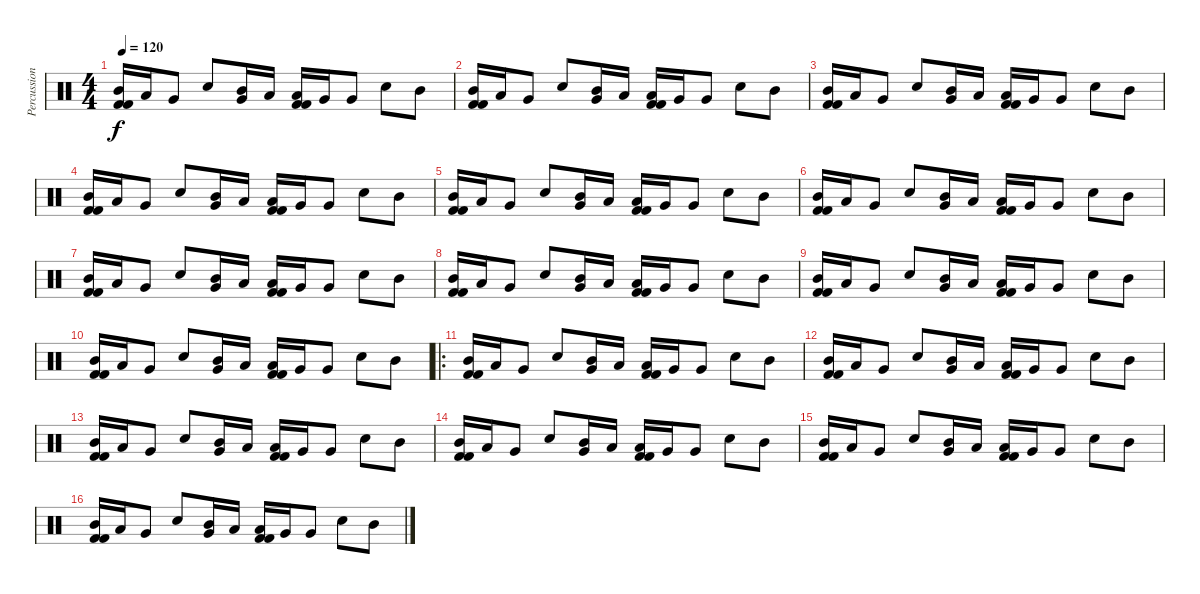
\track ("Percussions" "Percussion") {instrument percussion}
\staff {score}
\articulation defaults
\ts (4 4)
\tempo 120
\clef neutral
\ks c
("Kick (hit) 2" "Mid Tom (hit)" "Kick (hit) 2").16{dy f} "Low Tom (hit)".16 "Very Low Tom (hit)".8 "Snare (hit) 2".8 ("Mid Tom (hit)" "Very Low Tom (hit)").16 "Low Tom (hit)".16 ("Kick (hit) 2" "Low Tom (hit)" "Kick (hit) 2").16 "Very Low Tom (hit)".16 "Very Low Tom (hit)".8 "Snare (hit) 2".8 "Mid Tom (hit)".8 |
("Kick (hit) 2" "Mid Tom (hit)" "Kick (hit) 2").16 "Low Tom (hit)".16 "Very Low Tom (hit)".8 "Snare (hit) 2".8 ("Mid Tom (hit)" "Very Low Tom (hit)").16 "Low Tom (hit)".16 ("Kick (hit) 2" "Low Tom (hit)" "Kick (hit) 2").16 "Very Low Tom (hit)".16 "Very Low Tom (hit)".8 "Snare (hit) 2".8 "Mid Tom (hit)".8 |
("Kick (hit) 2" "Mid Tom (hit)" "Kick (hit) 2").16 "Low Tom (hit)".16 "Very Low Tom (hit)".8 "Snare (hit) 2".8 ("Mid Tom (hit)" "Very Low Tom (hit)").16 "Low Tom (hit)".16 ("Kick (hit) 2" "Low Tom (hit)" "Kick (hit) 2").16 "Very Low Tom (hit)".16 "Very Low Tom (hit)".8 "Snare (hit) 2".8 "Mid Tom (hit)".8 |
("Kick (hit) 2" "Mid Tom (hit)" "Kick (hit) 2").16 "Low Tom (hit)".16 "Very Low Tom (hit)".8 "Snare (hit) 2".8 ("Mid Tom (hit)" "Very Low Tom (hit)").16 "Low Tom (hit)".16 ("Kick (hit) 2" "Low Tom (hit)" "Kick (hit) 2").16 "Very Low Tom (hit)".16 "Very Low Tom (hit)".8 "Snare (hit) 2".8 "Mid Tom (hit)".8 |
("Kick (hit) 2" "Mid Tom (hit)" "Kick (hit) 2").16 "Low Tom (hit)".16 "Very Low Tom (hit)".8 "Snare (hit) 2".8 ("Mid Tom (hit)" "Very Low Tom (hit)").16 "Low Tom (hit)".16 ("Kick (hit) 2" "Low Tom (hit)" "Kick (hit) 2").16 "Very Low Tom (hit)".16 "Very Low Tom (hit)".8 "Snare (hit) 2".8 "Mid Tom (hit)".8 |
("Kick (hit) 2" "Mid Tom (hit)" "Kick (hit) 2").16 "Low Tom (hit)".16 "Very Low Tom (hit)".8 "Snare (hit) 2".8 ("Mid Tom (hit)" "Very Low Tom (hit)").16 "Low Tom (hit)".16 ("Kick (hit) 2" "Low Tom (hit)" "Kick (hit) 2").16 "Very Low Tom (hit)".16 "Very Low Tom (hit)".8 "Snare (hit) 2".8 "Mid Tom (hit)".8 |
("Kick (hit) 2" "Mid Tom (hit)" "Kick (hit) 2").16 "Low Tom (hit)".16 "Very Low Tom (hit)".8 "Snare (hit) 2".8 ("Mid Tom (hit)" "Very Low Tom (hit)").16 "Low Tom (hit)".16 ("Kick (hit) 2" "Low Tom (hit)" "Kick (hit) 2").16 "Very Low Tom (hit)".16 "Very Low Tom (hit)".8 "Snare (hit) 2".8 "Mid Tom (hit)".8 |
("Kick (hit) 2" "Mid Tom (hit)" "Kick (hit) 2").16 "Low Tom (hit)".16 "Very Low Tom (hit)".8 "Snare (hit) 2".8 ("Mid Tom (hit)" "Very Low Tom (hit)").16 "Low Tom (hit)".16 ("Kick (hit) 2" "Low Tom (hit)" "Kick (hit) 2").16 "Very Low Tom (hit)".16 "Very Low Tom (hit)".8 "Snare (hit) 2".8 "Mid Tom (hit)".8 |
("Kick (hit) 2" "Mid Tom (hit)" "Kick (hit) 2").16 "Low Tom (hit)".16 "Very Low Tom (hit)".8 "Snare (hit) 2".8 ("Mid Tom (hit)" "Very Low Tom (hit)").16 "Low Tom (hit)".16 ("Kick (hit) 2" "Low Tom (hit)" "Kick (hit) 2").16 "Very Low Tom (hit)".16 "Very Low Tom (hit)".8 "Snare (hit) 2".8 "Mid Tom (hit)".8 |
("Kick (hit) 2" "Mid Tom (hit)" "Kick (hit) 2").16 "Low Tom (hit)".16 "Very Low Tom (hit)".8 "Snare (hit) 2".8 ("Mid Tom (hit)" "Very Low Tom (hit)").16 "Low Tom (hit)".16 ("Kick (hit) 2" "Low Tom (hit)" "Kick (hit) 2").16 "Very Low Tom (hit)".16 "Very Low Tom (hit)".8 "Snare (hit) 2".8 "Mid Tom (hit)".8 |
\ro
("Kick (hit) 2" "Mid Tom (hit)" "Kick (hit) 2").16 "Low Tom (hit)".16 "Very Low Tom (hit)".8 "Snare (hit) 2".8 ("Mid Tom (hit)" "Very Low Tom (hit)").16 "Low Tom (hit)".16 ("Kick (hit) 2" "Low Tom (hit)" "Kick (hit) 2").16 "Very Low Tom (hit)".16 "Very Low Tom (hit)".8 "Snare (hit) 2".8 "Mid Tom (hit)".8 |
("Kick (hit) 2" "Mid Tom (hit)" "Kick (hit) 2").16 "Low Tom (hit)".16 "Very Low Tom (hit)".8 "Snare (hit) 2".8 ("Mid Tom (hit)" "Very Low Tom (hit)").16 "Low Tom (hit)".16 ("Kick (hit) 2" "Low Tom (hit)" "Kick (hit) 2").16 "Very Low Tom (hit)".16 "Very Low Tom (hit)".8 "Snare (hit) 2".8 "Mid Tom (hit)".8 |
("Kick (hit) 2" "Mid Tom (hit)" "Kick (hit) 2").16 "Low Tom (hit)".16 "Very Low Tom (hit)".8 "Snare (hit) 2".8 ("Mid Tom (hit)" "Very Low Tom (hit)").16 "Low Tom (hit)".16 ("Kick (hit) 2" "Low Tom (hit)" "Kick (hit) 2").16 "Very Low Tom (hit)".16 "Very Low Tom (hit)".8 "Snare (hit) 2".8 "Mid Tom (hit)".8 |
("Kick (hit) 2" "Mid Tom (hit)" "Kick (hit) 2").16 "Low Tom (hit)".16 "Very Low Tom (hit)".8 "Snare (hit) 2".8 ("Mid Tom (hit)" "Very Low Tom (hit)").16 "Low Tom (hit)".16 ("Kick (hit) 2" "Low Tom (hit)" "Kick (hit) 2").16 "Very Low Tom (hit)".16 "Very Low Tom (hit)".8 "Snare (hit) 2".8 "Mid Tom (hit)".8 |
("Kick (hit) 2" "Mid Tom (hit)" "Kick (hit) 2").16 "Low Tom (hit)".16 "Very Low Tom (hit)".8 "Snare (hit) 2".8 ("Mid Tom (hit)" "Very Low Tom (hit)").16 "Low Tom (hit)".16 ("Kick (hit) 2" "Low Tom (hit)" "Kick (hit) 2").16 "Very Low Tom (hit)".16 "Very Low Tom (hit)".8 "Snare (hit) 2".8 "Mid Tom (hit)".8 |
("Kick (hit) 2" "Mid Tom (hit)" "Kick (hit) 2").16 "Low Tom (hit)".16 "Very Low Tom (hit)".8 "Snare (hit) 2".8 ("Mid Tom (hit)" "Very Low Tom (hit)").16 "Low Tom (hit)".16 ("Kick (hit) 2" "Low Tom (hit)" "Kick (hit) 2").16 "Very Low Tom (hit)".16 "Very Low Tom (hit)".8 "Snare (hit) 2".8 "Mid Tom (hit)".8
